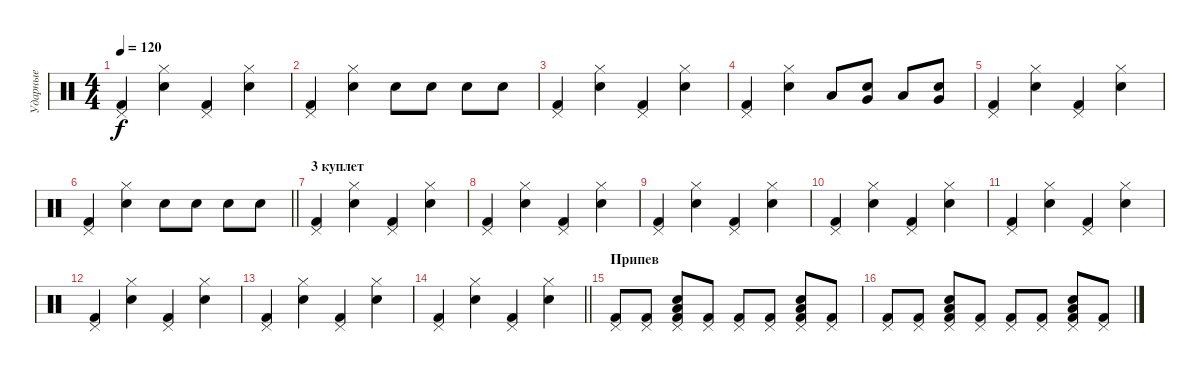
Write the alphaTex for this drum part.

\track ("Ударные" "Ударные") {instrument percussion}
\staff {score}
\articulation defaults
\ts (4 4)
\tempo 120
\clef neutral
\ks c
("Pedal Hi-Hat (hit)" "Kick (hit) 2").4{dy f} ("Hi-Hat (closed)" "Snare (hit) 2").4 ("Pedal Hi-Hat (hit)" "Kick (hit) 2").4 ("Hi-Hat (closed)" "Snare (hit) 2").4 |
("Pedal Hi-Hat (hit)" "Kick (hit) 2").4 ("Hi-Hat (closed)" "Snare (hit) 2").4 "Snare (hit) 2".8 "Snare (hit) 2".8 "Snare (hit) 2".8 "Snare (hit) 2".8 |
("Pedal Hi-Hat (hit)" "Kick (hit) 2").4 ("Hi-Hat (closed)" "Snare (hit) 2").4 ("Pedal Hi-Hat (hit)" "Kick (hit) 2").4 ("Hi-Hat (closed)" "Snare (hit) 2").4 |
("Pedal Hi-Hat (hit)" "Kick (hit) 2").4 ("Hi-Hat (closed)" "Snare (hit) 2").4 "Low Tom (hit)".8 ("Snare (hit) 2" "Very Low Tom (hit)").8 "Low Tom (hit)".8 ("Snare (hit) 2" "Very Low Tom (hit)").8 |
("Pedal Hi-Hat (hit)" "Kick (hit) 2").4 ("Hi-Hat (closed)" "Snare (hit) 2").4 ("Pedal Hi-Hat (hit)" "Kick (hit) 2").4 ("Hi-Hat (closed)" "Snare (hit) 2").4 |
\barLineRight lightlight
("Pedal Hi-Hat (hit)" "Kick (hit) 2").4 ("Hi-Hat (closed)" "Snare (hit) 2").4 "Snare (hit) 2".8 "Snare (hit) 2".8 "Snare (hit) 2".8 "Snare (hit) 2".8 |
\section ("" "3 куплет")
("Pedal Hi-Hat (hit)" "Kick (hit) 2").4 ("Hi-Hat (closed)" "Snare (hit) 2").4 ("Pedal Hi-Hat (hit)" "Kick (hit) 2").4 ("Hi-Hat (closed)" "Snare (hit) 2").4 |
("Pedal Hi-Hat (hit)" "Kick (hit) 2").4 ("Hi-Hat (closed)" "Snare (hit) 2").4 ("Pedal Hi-Hat (hit)" "Kick (hit) 2").4 ("Hi-Hat (closed)" "Snare (hit) 2").4 |
("Pedal Hi-Hat (hit)" "Kick (hit) 2").4 ("Hi-Hat (closed)" "Snare (hit) 2").4 ("Pedal Hi-Hat (hit)" "Kick (hit) 2").4 ("Hi-Hat (closed)" "Snare (hit) 2").4 |
("Pedal Hi-Hat (hit)" "Kick (hit) 2").4 ("Hi-Hat (closed)" "Snare (hit) 2").4 ("Pedal Hi-Hat (hit)" "Kick (hit) 2").4 ("Hi-Hat (closed)" "Snare (hit) 2").4 |
("Pedal Hi-Hat (hit)" "Kick (hit) 2").4 ("Hi-Hat (closed)" "Snare (hit) 2").4 ("Pedal Hi-Hat (hit)" "Kick (hit) 2").4 ("Hi-Hat (closed)" "Snare (hit) 2").4 |
("Pedal Hi-Hat (hit)" "Kick (hit) 2").4 ("Hi-Hat (closed)" "Snare (hit) 2").4 ("Pedal Hi-Hat (hit)" "Kick (hit) 2").4 ("Hi-Hat (closed)" "Snare (hit) 2").4 |
("Pedal Hi-Hat (hit)" "Kick (hit) 2").4 ("Hi-Hat (closed)" "Snare (hit) 2").4 ("Pedal Hi-Hat (hit)" "Kick (hit) 2").4 ("Hi-Hat (closed)" "Snare (hit) 2").4 |
\barLineRight lightlight
("Pedal Hi-Hat (hit)" "Kick (hit) 2").4 ("Hi-Hat (closed)" "Snare (hit) 2").4 ("Pedal Hi-Hat (hit)" "Kick (hit) 2").4 ("Hi-Hat (closed)" "Snare (hit) 2").4 |
\section ("" "Припев")
("Pedal Hi-Hat (hit)" "Kick (hit) 2").8 ("Pedal Hi-Hat (hit)" "Kick (hit) 2").8 ("Pedal Hi-Hat (hit)" "Snare (hit) 2" "Low Tom (hit)" "Kick (hit) 2").8{bd 60} ("Pedal Hi-Hat (hit)" "Kick (hit) 2").8 ("Pedal Hi-Hat (hit)" "Kick (hit) 2").8 ("Pedal Hi-Hat (hit)" "Kick (hit) 2").8 ("Pedal Hi-Hat (hit)" "Snare (hit) 2" "Low Tom (hit)" "Kick (hit) 2").8{bd 60} ("Pedal Hi-Hat (hit)" "Kick (hit) 2").8 |
("Pedal Hi-Hat (hit)" "Kick (hit) 2").8 ("Pedal Hi-Hat (hit)" "Kick (hit) 2").8 ("Pedal Hi-Hat (hit)" "Snare (hit) 2" "Low Tom (hit)" "Kick (hit) 2").8{bd 60} ("Pedal Hi-Hat (hit)" "Kick (hit) 2").8 ("Pedal Hi-Hat (hit)" "Kick (hit) 2").8 ("Pedal Hi-Hat (hit)" "Kick (hit) 2").8 ("Pedal Hi-Hat (hit)" "Snare (hit) 2" "Low Tom (hit)" "Kick (hit) 2").8{bd 60} ("Pedal Hi-Hat (hit)" "Kick (hit) 2").8
